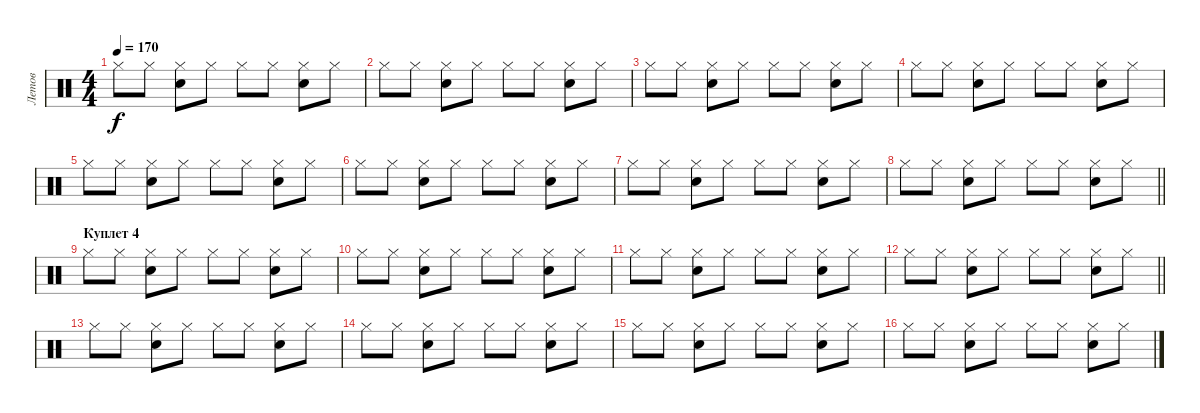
\track ("Летов" "Летов") {instrument percussion}
\staff {score}
\articulation defaults
\ts (4 4)
\tempo 170
\clef neutral
\ks c "Hi-Hat (closed)".8{dy f} "Hi-Hat (closed)".8
("Hi-Hat (closed)" "Electric Snare (hit)").8 "Hi-Hat (closed)".8 "Hi-Hat (closed)".8 "Hi-Hat (closed)".8 ("Hi-Hat (closed)" "Electric Snare (hit)").8 "Hi-Hat (closed)".8 |
"Hi-Hat (closed)".8 "Hi-Hat (closed)".8 ("Hi-Hat (closed)" "Electric Snare (hit)").8 "Hi-Hat (closed)".8 "Hi-Hat (closed)".8 "Hi-Hat (closed)".8 ("Hi-Hat (closed)" "Electric Snare (hit)").8 "Hi-Hat (closed)".8 |
"Hi-Hat (closed)".8 "Hi-Hat (closed)".8 ("Hi-Hat (closed)" "Electric Snare (hit)").8 "Hi-Hat (closed)".8 "Hi-Hat (closed)".8 "Hi-Hat (closed)".8 ("Hi-Hat (closed)" "Electric Snare (hit)").8 "Hi-Hat (closed)".8 |
"Hi-Hat (closed)".8 "Hi-Hat (closed)".8 ("Hi-Hat (closed)" "Electric Snare (hit)").8 "Hi-Hat (closed)".8 "Hi-Hat (closed)".8 "Hi-Hat (closed)".8 ("Hi-Hat (closed)" "Electric Snare (hit)").8 "Hi-Hat (closed)".8 |
"Hi-Hat (closed)".8 "Hi-Hat (closed)".8 ("Hi-Hat (closed)" "Electric Snare (hit)").8 "Hi-Hat (closed)".8 "Hi-Hat (closed)".8 "Hi-Hat (closed)".8 ("Hi-Hat (closed)" "Electric Snare (hit)").8 "Hi-Hat (closed)".8 |
"Hi-Hat (closed)".8 "Hi-Hat (closed)".8 ("Hi-Hat (closed)" "Electric Snare (hit)").8 "Hi-Hat (closed)".8 "Hi-Hat (closed)".8 "Hi-Hat (closed)".8 ("Hi-Hat (closed)" "Electric Snare (hit)").8 "Hi-Hat (closed)".8 |
"Hi-Hat (closed)".8 "Hi-Hat (closed)".8 ("Hi-Hat (closed)" "Electric Snare (hit)").8 "Hi-Hat (closed)".8 "Hi-Hat (closed)".8 "Hi-Hat (closed)".8 ("Hi-Hat (closed)" "Electric Snare (hit)").8 "Hi-Hat (closed)".8 |
\barLineRight lightlight "Hi-Hat (closed)".8 "Hi-Hat (closed)".8
("Hi-Hat (closed)" "Electric Snare (hit)").8 "Hi-Hat (closed)".8 "Hi-Hat (closed)".8 "Hi-Hat (closed)".8 ("Hi-Hat (closed)" "Electric Snare (hit)").8 "Hi-Hat (closed)".8 |
\section ("" "Куплет 4")
"Hi-Hat (closed)".8 "Hi-Hat (closed)".8 ("Hi-Hat (closed)" "Electric Snare (hit)").8 "Hi-Hat (closed)".8 "Hi-Hat (closed)".8 "Hi-Hat (closed)".8 ("Hi-Hat (closed)" "Electric Snare (hit)").8 "Hi-Hat (closed)".8 |
"Hi-Hat (closed)".8 "Hi-Hat (closed)".8 ("Hi-Hat (closed)" "Electric Snare (hit)").8 "Hi-Hat (closed)".8 "Hi-Hat (closed)".8 "Hi-Hat (closed)".8 ("Hi-Hat (closed)" "Electric Snare (hit)").8 "Hi-Hat (closed)".8 |
"Hi-Hat (closed)".8 "Hi-Hat (closed)".8 ("Hi-Hat (closed)" "Electric Snare (hit)").8 "Hi-Hat (closed)".8 "Hi-Hat (closed)".8 "Hi-Hat (closed)".8 ("Hi-Hat (closed)" "Electric Snare (hit)").8 "Hi-Hat (closed)".8 |
\barLineRight lightlight "Hi-Hat (closed)".8 "Hi-Hat (closed)".8
("Hi-Hat (closed)" "Electric Snare (hit)").8 "Hi-Hat (closed)".8 "Hi-Hat (closed)".8 "Hi-Hat (closed)".8 ("Hi-Hat (closed)" "Electric Snare (hit)").8 "Hi-Hat (closed)".8 |
"Hi-Hat (closed)".8 "Hi-Hat (closed)".8 ("Hi-Hat (closed)" "Electric Snare (hit)").8 "Hi-Hat (closed)".8 "Hi-Hat (closed)".8 "Hi-Hat (closed)".8 ("Hi-Hat (closed)" "Electric Snare (hit)").8 "Hi-Hat (closed)".8 |
"Hi-Hat (closed)".8 "Hi-Hat (closed)".8 ("Hi-Hat (closed)" "Electric Snare (hit)").8 "Hi-Hat (closed)".8 "Hi-Hat (closed)".8 "Hi-Hat (closed)".8 ("Hi-Hat (closed)" "Electric Snare (hit)").8 "Hi-Hat (closed)".8 |
"Hi-Hat (closed)".8 "Hi-Hat (closed)".8 ("Hi-Hat (closed)" "Electric Snare (hit)").8 "Hi-Hat (closed)".8 "Hi-Hat (closed)".8 "Hi-Hat (closed)".8 ("Hi-Hat (closed)" "Electric Snare (hit)").8 "Hi-Hat (closed)".8 |
"Hi-Hat (closed)".8 "Hi-Hat (closed)".8 ("Hi-Hat (closed)" "Electric Snare (hit)").8 "Hi-Hat (closed)".8 "Hi-Hat (closed)".8 "Hi-Hat (closed)".8 ("Hi-Hat (closed)" "Electric Snare (hit)").8 "Hi-Hat (closed)".8
